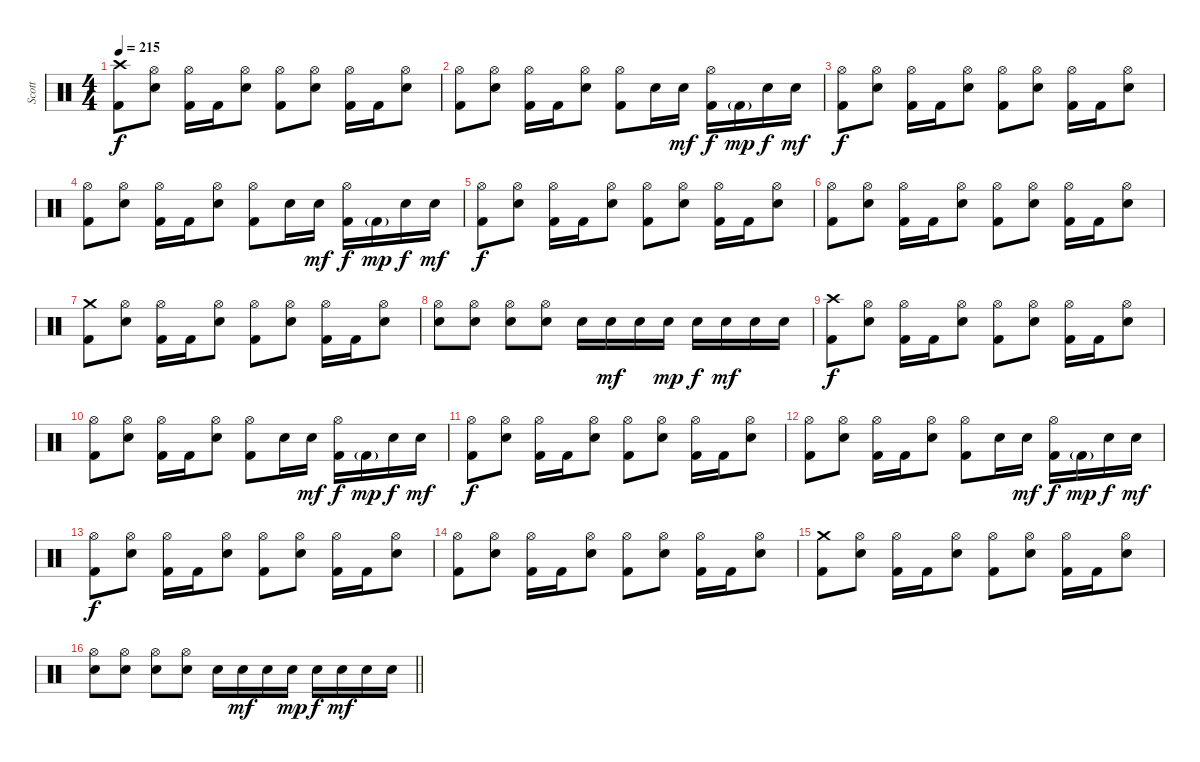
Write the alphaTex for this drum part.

\track ("Scott" "Scott") {instrument percussion}
\staff {score}
\articulation defaults
\ts (4 4)
\section ("" "")
\tempo 215
\clef neutral
\ks c
("Crash high (hit)" "Kick (hit) 2").8{dy f} ("Hi-Hat (open)" "Electric Snare (hit)").8 ("Hi-Hat (open)" "Kick (hit) 2").16 "Kick (hit) 2".16 ("Hi-Hat (open)" "Electric Snare (hit)").8 ("Hi-Hat (open)" "Kick (hit) 2").8 ("Hi-Hat (open)" "Electric Snare (hit)").8 ("Hi-Hat (open)" "Kick (hit) 2").16 "Kick (hit) 2".16 ("Hi-Hat (open)" "Electric Snare (hit)").8 |
("Hi-Hat (open)" "Kick (hit) 2").8 ("Hi-Hat (open)" "Electric Snare (hit)").8 ("Hi-Hat (open)" "Kick (hit) 2").16 "Kick (hit) 2".16 ("Hi-Hat (open)" "Electric Snare (hit)").8 ("Hi-Hat (open)" "Kick (hit) 2").8 "Electric Snare (hit)".16 "Electric Snare (hit)".16{dy mf} ("Hi-Hat (open)" "Kick (hit) 2").16{dy f} "Kick (hit) 2"{g}.16{dy mp} "Electric Snare (hit)".16{dy f} "Electric Snare (hit)".16{dy mf} |
("Hi-Hat (open)" "Kick (hit) 2").8{dy f} ("Hi-Hat (open)" "Electric Snare (hit)").8 ("Hi-Hat (open)" "Kick (hit) 2").16 "Kick (hit) 2".16 ("Hi-Hat (open)" "Electric Snare (hit)").8 ("Hi-Hat (open)" "Kick (hit) 2").8 ("Hi-Hat (open)" "Electric Snare (hit)").8 ("Hi-Hat (open)" "Kick (hit) 2").16 "Kick (hit) 2".16 ("Hi-Hat (open)" "Electric Snare (hit)").8 |
("Hi-Hat (open)" "Kick (hit) 2").8 ("Hi-Hat (open)" "Electric Snare (hit)").8 ("Hi-Hat (open)" "Kick (hit) 2").16 "Kick (hit) 2".16 ("Hi-Hat (open)" "Electric Snare (hit)").8 ("Hi-Hat (open)" "Kick (hit) 2").8 "Electric Snare (hit)".16 "Electric Snare (hit)".16{dy mf} ("Hi-Hat (open)" "Kick (hit) 2").16{dy f} "Kick (hit) 2"{g}.16{dy mp} "Electric Snare (hit)".16{dy f} "Electric Snare (hit)".16{dy mf} |
("Hi-Hat (open)" "Kick (hit) 2").8{dy f} ("Hi-Hat (open)" "Electric Snare (hit)").8 ("Hi-Hat (open)" "Kick (hit) 2").16 "Kick (hit) 2".16 ("Hi-Hat (open)" "Electric Snare (hit)").8 ("Hi-Hat (open)" "Kick (hit) 2").8 ("Hi-Hat (open)" "Electric Snare (hit)").8 ("Hi-Hat (open)" "Kick (hit) 2").16 "Kick (hit) 2".16 ("Hi-Hat (open)" "Electric Snare (hit)").8 |
("Hi-Hat (open)" "Kick (hit) 2").8 ("Hi-Hat (open)" "Electric Snare (hit)").8 ("Hi-Hat (open)" "Kick (hit) 2").16 "Kick (hit) 2".16 ("Hi-Hat (open)" "Electric Snare (hit)").8 ("Hi-Hat (open)" "Kick (hit) 2").8 ("Hi-Hat (open)" "Electric Snare (hit)").8 ("Hi-Hat (open)" "Kick (hit) 2").16 "Kick (hit) 2".16 ("Hi-Hat (open)" "Electric Snare (hit)").8 |
("Crash medium (hit)" "Kick (hit) 2").8 ("Hi-Hat (open)" "Electric Snare (hit)").8 ("Hi-Hat (open)" "Kick (hit) 2").16 "Kick (hit) 2".16 ("Hi-Hat (open)" "Electric Snare (hit)").8 ("Hi-Hat (open)" "Kick (hit) 2").8 ("Hi-Hat (open)" "Electric Snare (hit)").8 ("Hi-Hat (open)" "Kick (hit) 2").16 "Kick (hit) 2".16 ("Hi-Hat (open)" "Electric Snare (hit)").8 |
("Hi-Hat (open)" "Electric Snare (hit)").8 ("Hi-Hat (open)" "Electric Snare (hit)").8 ("Hi-Hat (open)" "Electric Snare (hit)").8 ("Hi-Hat (open)" "Electric Snare (hit)").8 "Electric Snare (hit)".16 "Electric Snare (hit)".16{dy mf} "Electric Snare (hit)".16 "Electric Snare (hit)".16{dy mp} "Electric Snare (hit)".16{dy f} "Electric Snare (hit)".16{dy mf} "Electric Snare (hit)".16 "Electric Snare (hit)".16 |
("Crash high (hit)" "Kick (hit) 2").8{dy f} ("Hi-Hat (open)" "Electric Snare (hit)").8 ("Hi-Hat (open)" "Kick (hit) 2").16 "Kick (hit) 2".16 ("Hi-Hat (open)" "Electric Snare (hit)").8 ("Hi-Hat (open)" "Kick (hit) 2").8 ("Hi-Hat (open)" "Electric Snare (hit)").8 ("Hi-Hat (open)" "Kick (hit) 2").16 "Kick (hit) 2".16 ("Hi-Hat (open)" "Electric Snare (hit)").8 |
("Hi-Hat (open)" "Kick (hit) 2").8 ("Hi-Hat (open)" "Electric Snare (hit)").8 ("Hi-Hat (open)" "Kick (hit) 2").16 "Kick (hit) 2".16 ("Hi-Hat (open)" "Electric Snare (hit)").8 ("Hi-Hat (open)" "Kick (hit) 2").8 "Electric Snare (hit)".16 "Electric Snare (hit)".16{dy mf} ("Hi-Hat (open)" "Kick (hit) 2").16{dy f} "Kick (hit) 2"{g}.16{dy mp} "Electric Snare (hit)".16{dy f} "Electric Snare (hit)".16{dy mf} |
("Hi-Hat (open)" "Kick (hit) 2").8{dy f} ("Hi-Hat (open)" "Electric Snare (hit)").8 ("Hi-Hat (open)" "Kick (hit) 2").16 "Kick (hit) 2".16 ("Hi-Hat (open)" "Electric Snare (hit)").8 ("Hi-Hat (open)" "Kick (hit) 2").8 ("Hi-Hat (open)" "Electric Snare (hit)").8 ("Hi-Hat (open)" "Kick (hit) 2").16 "Kick (hit) 2".16 ("Hi-Hat (open)" "Electric Snare (hit)").8 |
("Hi-Hat (open)" "Kick (hit) 2").8 ("Hi-Hat (open)" "Electric Snare (hit)").8 ("Hi-Hat (open)" "Kick (hit) 2").16 "Kick (hit) 2".16 ("Hi-Hat (open)" "Electric Snare (hit)").8 ("Hi-Hat (open)" "Kick (hit) 2").8 "Electric Snare (hit)".16 "Electric Snare (hit)".16{dy mf} ("Hi-Hat (open)" "Kick (hit) 2").16{dy f} "Kick (hit) 2"{g}.16{dy mp} "Electric Snare (hit)".16{dy f} "Electric Snare (hit)".16{dy mf} |
("Hi-Hat (open)" "Kick (hit) 2").8{dy f} ("Hi-Hat (open)" "Electric Snare (hit)").8 ("Hi-Hat (open)" "Kick (hit) 2").16 "Kick (hit) 2".16 ("Hi-Hat (open)" "Electric Snare (hit)").8 ("Hi-Hat (open)" "Kick (hit) 2").8 ("Hi-Hat (open)" "Electric Snare (hit)").8 ("Hi-Hat (open)" "Kick (hit) 2").16 "Kick (hit) 2".16 ("Hi-Hat (open)" "Electric Snare (hit)").8 |
("Hi-Hat (open)" "Kick (hit) 2").8 ("Hi-Hat (open)" "Electric Snare (hit)").8 ("Hi-Hat (open)" "Kick (hit) 2").16 "Kick (hit) 2".16 ("Hi-Hat (open)" "Electric Snare (hit)").8 ("Hi-Hat (open)" "Kick (hit) 2").8 ("Hi-Hat (open)" "Electric Snare (hit)").8 ("Hi-Hat (open)" "Kick (hit) 2").16 "Kick (hit) 2".16 ("Hi-Hat (open)" "Electric Snare (hit)").8 |
("Crash medium (hit)" "Kick (hit) 2").8 ("Hi-Hat (open)" "Electric Snare (hit)").8 ("Hi-Hat (open)" "Kick (hit) 2").16 "Kick (hit) 2".16 ("Hi-Hat (open)" "Electric Snare (hit)").8 ("Hi-Hat (open)" "Kick (hit) 2").8 ("Hi-Hat (open)" "Electric Snare (hit)").8 ("Hi-Hat (open)" "Kick (hit) 2").16 "Kick (hit) 2".16 ("Hi-Hat (open)" "Electric Snare (hit)").8 |
\barLineRight lightlight
("Hi-Hat (open)" "Electric Snare (hit)").8 ("Hi-Hat (open)" "Electric Snare (hit)").8 ("Hi-Hat (open)" "Electric Snare (hit)").8 ("Hi-Hat (open)" "Electric Snare (hit)").8 "Electric Snare (hit)".16 "Electric Snare (hit)".16{dy mf} "Electric Snare (hit)".16 "Electric Snare (hit)".16{dy mp} "Electric Snare (hit)".16{dy f} "Electric Snare (hit)".16{dy mf} "Electric Snare (hit)".16 "Electric Snare (hit)".16
